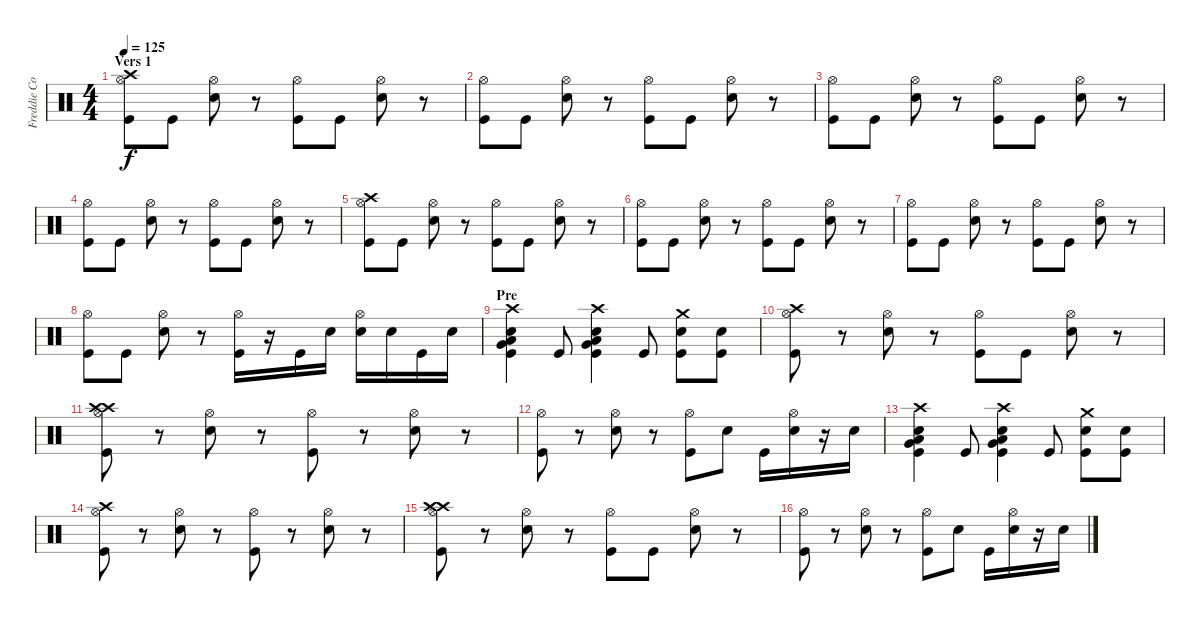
\track ("Freddie Coury - Drums" "Freddie Co") {instrument percussion}
\staff {score}
\articulation defaults
\ts (4 4)
\section ("" "Vers 1")
\tempo 125
\clef neutral
\ks c
("Hi-Hat (open)" "Crash high (hit)" "Kick (hit)").8{dy f} "Kick (hit)".8 ("Hi-Hat (open)" "Snare (hit) 2").8 r.8 ("Hi-Hat (open)" "Kick (hit)").8 "Kick (hit)".8 ("Hi-Hat (open)" "Snare (hit) 2").8 r.8 |
("Hi-Hat (open)" "Kick (hit)").8 "Kick (hit)".8 ("Hi-Hat (open)" "Snare (hit) 2").8 r.8 ("Hi-Hat (open)" "Kick (hit)").8 "Kick (hit)".8 ("Hi-Hat (open)" "Snare (hit) 2").8 r.8 |
("Hi-Hat (open)" "Kick (hit)").8 "Kick (hit)".8 ("Hi-Hat (open)" "Snare (hit) 2").8 r.8 ("Hi-Hat (open)" "Kick (hit)").8 "Kick (hit)".8 ("Hi-Hat (open)" "Snare (hit) 2").8 r.8 |
("Hi-Hat (open)" "Kick (hit)").8 "Kick (hit)".8 ("Hi-Hat (open)" "Snare (hit) 2").8 r.8 ("Hi-Hat (open)" "Kick (hit)").8 "Kick (hit)".8 ("Hi-Hat (open)" "Snare (hit) 2").8 r.8 |
("Hi-Hat (open)" "Crash high (hit)" "Kick (hit)").8 "Kick (hit)".8 ("Hi-Hat (open)" "Snare (hit) 2").8 r.8 ("Hi-Hat (open)" "Kick (hit)").8 "Kick (hit)".8 ("Hi-Hat (open)" "Snare (hit) 2").8 r.8 |
("Hi-Hat (open)" "Kick (hit)").8 "Kick (hit)".8 ("Hi-Hat (open)" "Snare (hit) 2").8 r.8 ("Hi-Hat (open)" "Kick (hit)").8 "Kick (hit)".8 ("Hi-Hat (open)" "Snare (hit) 2").8 r.8 |
("Hi-Hat (open)" "Kick (hit)").8 "Kick (hit)".8 ("Hi-Hat (open)" "Snare (hit) 2").8 r.8 ("Hi-Hat (open)" "Kick (hit)").8 "Kick (hit)".8 ("Hi-Hat (open)" "Snare (hit) 2").8 r.8 |
("Hi-Hat (open)" "Kick (hit)").8 "Kick (hit)".8 ("Hi-Hat (open)" "Snare (hit) 2").8 r.8 ("Hi-Hat (open)" "Kick (hit)").16 r.16 "Kick (hit)".16 "Snare (hit) 2".16 ("Hi-Hat (open)" "Snare (hit) 2").16 "Snare (hit) 2".16 "Kick (hit)".16 "Snare (hit) 2".16 |
\section ("" "Pre")
("Crash high (hit)" "Snare (hit) 2" "Kick (hit)" "Low Floor Tom (hit)" "Very Low Tom (hit)").4 "Kick (hit)".8 ("Crash high (hit)" "Snare (hit) 2" "Kick (hit)" "Low Floor Tom (hit)" "Very Low Tom (hit)").4 "Kick (hit)".8 ("Snare (hit) 2" "Crash medium (hit)" "Kick (hit)").8 ("Snare (hit) 2" "Kick (hit)").8 |
("Hi-Hat (open)" "Crash high (hit)" "Kick (hit)").8 r.8 ("Hi-Hat (open)" "Snare (hit) 2").8 r.8 ("Hi-Hat (open)" "Kick (hit)").8 "Kick (hit)".8 ("Hi-Hat (open)" "Snare (hit) 2").8 r.8 |
("Hi-Hat (open)" "Crash high (hit)" "Crash high (hit)" "Kick (hit)").8 r.8 ("Hi-Hat (open)" "Snare (hit) 2").8 r.8 ("Hi-Hat (open)" "Kick (hit)").8 r.8 ("Hi-Hat (open)" "Snare (hit) 2").8 r.8 |
("Hi-Hat (open)" "Kick (hit)").8 r.8 ("Hi-Hat (open)" "Snare (hit) 2").8 r.8 ("Hi-Hat (open)" "Kick (hit)").8 "Snare (hit) 2".8 "Kick (hit)".16 ("Hi-Hat (open)" "Snare (hit) 2").16 r.16 "Snare (hit) 2".16 |
("Crash high (hit)" "Snare (hit) 2" "Kick (hit)" "Low Floor Tom (hit)" "Very Low Tom (hit)").4 "Kick (hit)".8 ("Crash high (hit)" "Snare (hit) 2" "Kick (hit)" "Low Floor Tom (hit)" "Very Low Tom (hit)").4 "Kick (hit)".8 ("Snare (hit) 2" "Crash medium (hit)" "Kick (hit)").8 ("Snare (hit) 2" "Kick (hit)").8 |
("Hi-Hat (open)" "Crash high (hit)" "Kick (hit)").8 r.8 ("Hi-Hat (open)" "Snare (hit) 2").8 r.8 ("Hi-Hat (open)" "Kick (hit)").8 r.8 ("Hi-Hat (open)" "Snare (hit) 2").8 r.8 |
("Hi-Hat (open)" "Crash high (hit)" "Crash high (hit)" "Kick (hit)").8 r.8 ("Hi-Hat (open)" "Snare (hit) 2").8 r.8 ("Hi-Hat (open)" "Kick (hit)").8 "Kick (hit)".8 ("Hi-Hat (open)" "Snare (hit) 2").8 r.8 |
("Hi-Hat (open)" "Kick (hit)").8 r.8 ("Hi-Hat (open)" "Snare (hit) 2").8 r.8 ("Hi-Hat (open)" "Kick (hit)").8 "Snare (hit) 2".8 "Kick (hit)".16 ("Hi-Hat (open)" "Snare (hit) 2").16 r.16 "Snare (hit) 2".16
